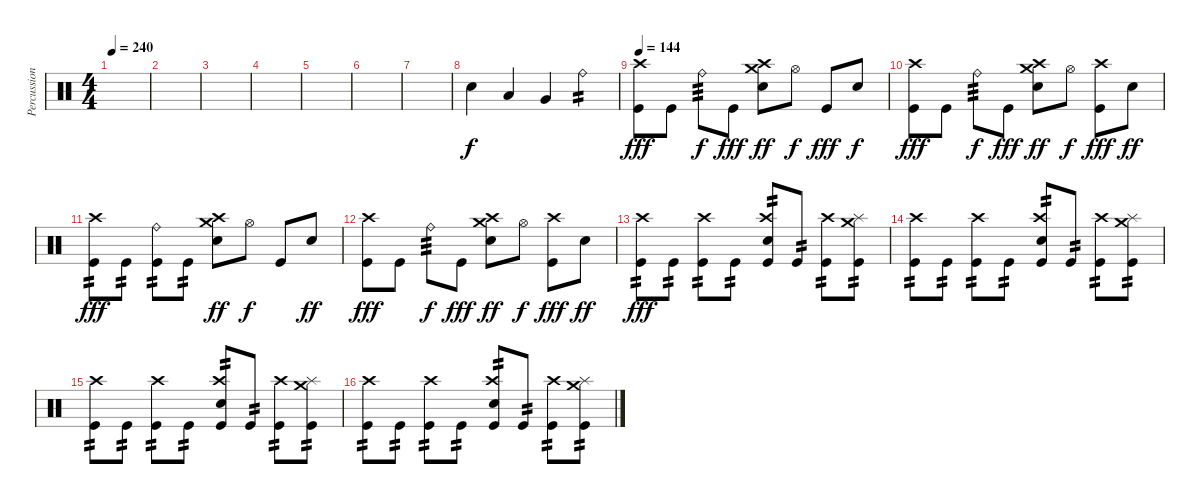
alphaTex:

\track ("Percussion" "Percussion") {instrument percussion}
\staff {score}
\articulation defaults
\ts (4 4)
\tempo 240
\clef neutral
\ks c
|
|
|
|
|
|
|
"Electric Snare (hit)".4 "Low Tom (hit)".4{dy f} "Very Low Tom (hit)".4 "Ride (bell)".4{tp 2} |
\tempo 144
("Crash high (hit)" "Kick (hit)").8{dy fff} "Kick (hit)".8 "Ride (bell)".8{tp 3 dy f} "Kick (hit)".8{dy fff} ("Crash medium (hit)" "Crash high (hit)" "Electric Snare (hit)").8{dy ff} "Hi-Hat (open)".8{dy f} "Kick (hit)".8{dy fff} "Electric Snare (hit)".8{dy f} |
("Crash high (hit)" "Kick (hit)").8{dy fff} "Kick (hit)".8 "Ride (bell)".8{tp 3 dy f} "Kick (hit)".8{dy fff} ("Crash medium (hit)" "Crash high (hit)" "Electric Snare (hit)").8{dy ff} "Hi-Hat (open)".8{dy f} ("Crash high (hit)" "Kick (hit)").8{dy fff} "Electric Snare (hit)".8{dy ff} |
("Crash high (hit)" "Kick (hit)").8{tp 2 dy fff} "Kick (hit)".8{tp 2} ("Ride (bell)" "Kick (hit)").8{tp 2} "Kick (hit)".8{tp 2} ("Crash medium (hit)" "Crash high (hit)" "Electric Snare (hit)").8{dy ff} "Hi-Hat (open)".8{dy f} "Kick (hit)".8 "Electric Snare (hit)".8{dy ff} |
("Crash high (hit)" "Kick (hit)").8{dy fff} "Kick (hit)".8 "Ride (bell)".8{tp 3 dy f} "Kick (hit)".8{dy fff} ("Crash medium (hit)" "Crash high (hit)" "Electric Snare (hit)").8{dy ff} "Hi-Hat (open)".8{dy f} ("Crash high (hit)" "Kick (hit)").8{dy fff} "Electric Snare (hit)".8{dy ff} |
("Crash high (hit)" "Kick (hit)").8{tp 2 dy fff} "Kick (hit)".8{tp 2} ("Crash high (hit)" "Kick (hit)").8{tp 2} "Kick (hit)".8{tp 2} ("Crash high (hit)" "Electric Snare (hit)" "Kick (hit)").8{tp 2} "Kick (hit)".8{tp 2} ("Crash high (hit)" "Kick (hit)").8{tp 2} ("Splash (hit)" "Crash medium (hit)" "Kick (hit)").8{tp 2} |
("Crash high (hit)" "Kick (hit)").8{tp 2} "Kick (hit)".8{tp 2} ("Crash high (hit)" "Kick (hit)").8{tp 2} "Kick (hit)".8{tp 2} ("Crash high (hit)" "Electric Snare (hit)" "Kick (hit)").8{tp 2} "Kick (hit)".8{tp 2} ("Crash high (hit)" "Kick (hit)").8{tp 2} ("Splash (hit)" "Crash medium (hit)" "Kick (hit)").8{tp 2} |
("Crash high (hit)" "Kick (hit)").8{tp 2} "Kick (hit)".8{tp 2} ("Crash high (hit)" "Kick (hit)").8{tp 2} "Kick (hit)".8{tp 2} ("Crash high (hit)" "Electric Snare (hit)" "Kick (hit)").8{tp 2} "Kick (hit)".8{tp 2} ("Crash high (hit)" "Kick (hit)").8{tp 2} ("Splash (hit)" "Crash medium (hit)" "Kick (hit)").8{tp 2} |
("Crash high (hit)" "Kick (hit)").8{tp 2} "Kick (hit)".8{tp 2} ("Crash high (hit)" "Kick (hit)").8{tp 2} "Kick (hit)".8{tp 2} ("Crash high (hit)" "Electric Snare (hit)" "Kick (hit)").8{tp 2} "Kick (hit)".8{tp 2} ("Crash high (hit)" "Kick (hit)").8{tp 2} ("Splash (hit)" "Crash medium (hit)" "Kick (hit)").8{tp 2}
